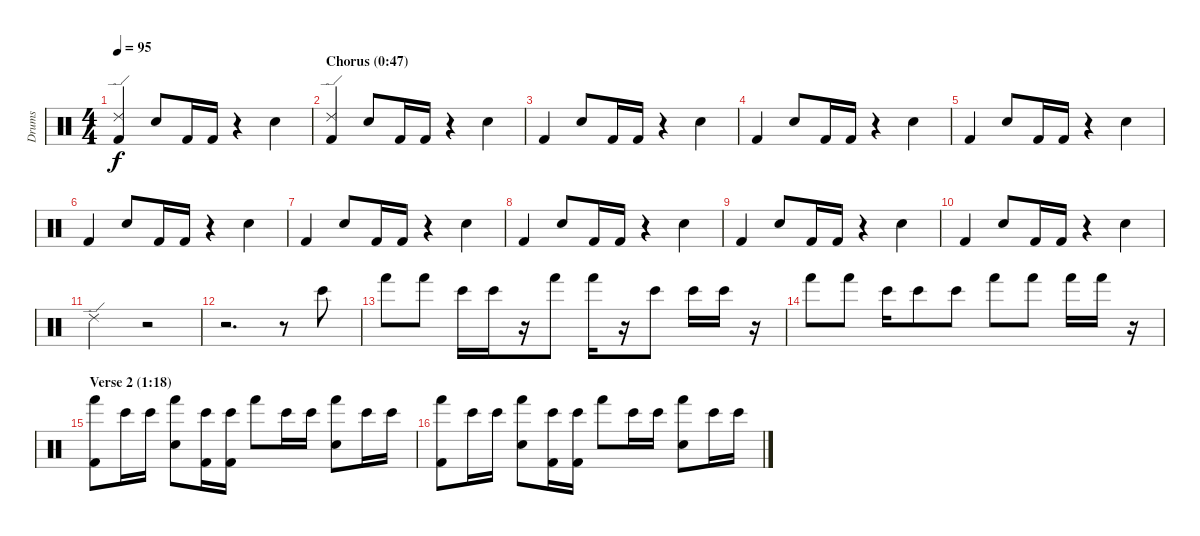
\track ("Drums" "Drums") {instrument percussion}
\staff {score}
\articulation defaults
\ts (4 4)
\tempo 95
\clef neutral
\ks c
("Ride (edge) 2" "Kick (hit) 2").4{dy f} "Snare (hit) 2".8 "Kick (hit) 2".16 "Kick (hit) 2".16 r.4 "Snare (hit) 2".4 |
\section ("" "Chorus (0:47)")
("Ride (edge) 2" "Kick (hit) 2").4 "Snare (hit) 2".8 "Kick (hit) 2".16 "Kick (hit) 2".16 r.4 "Snare (hit) 2".4 |
"Kick (hit) 2".4 "Snare (hit) 2".8 "Kick (hit) 2".16 "Kick (hit) 2".16 r.4 "Snare (hit) 2".4 |
"Kick (hit) 2".4 "Snare (hit) 2".8 "Kick (hit) 2".16 "Kick (hit) 2".16 r.4 "Snare (hit) 2".4 |
"Kick (hit) 2".4 "Snare (hit) 2".8 "Kick (hit) 2".16 "Kick (hit) 2".16 r.4 "Snare (hit) 2".4 |
"Kick (hit) 2".4 "Snare (hit) 2".8 "Kick (hit) 2".16 "Kick (hit) 2".16 r.4 "Snare (hit) 2".4 |
"Kick (hit) 2".4 "Snare (hit) 2".8 "Kick (hit) 2".16 "Kick (hit) 2".16 r.4 "Snare (hit) 2".4 |
"Kick (hit) 2".4 "Snare (hit) 2".8 "Kick (hit) 2".16 "Kick (hit) 2".16 r.4 "Snare (hit) 2".4 |
"Kick (hit) 2".4 "Snare (hit) 2".8 "Kick (hit) 2".16 "Kick (hit) 2".16 r.4 "Snare (hit) 2".4 |
"Kick (hit) 2".4 "Snare (hit) 2".8 "Kick (hit) 2".16 "Kick (hit) 2".16 r.4 "Snare (hit) 2".4 |
"Ride (edge) 2".2 r.2 |
r.2{d} r.8 "Bongo High (hit)".8 |
"Hand (hit)".8 "Hand (hit)".8 "Bongo High (hit)".16 "Bongo High (hit)".16 r.16 "Hand (hit)".8 "Hand (hit)".16 r.16 "Bongo High (hit)".8 "Bongo High (hit)".16 "Bongo High (hit)".16 r.16 |
"Hand (hit)".8 "Hand (hit)".8 "Bongo High (hit)".16 "Bongo High (hit)".8 "Bongo High (hit)".8 "Hand (hit)".8 "Hand (hit)".8 "Hand (hit)".16 "Hand (hit)".16 r.16 |
\section ("" "Verse 2 (1:18)")
("Hand (hit)" "Kick (hit) 2").8 "Bongo High (hit)".16 "Bongo High (hit)".16 ("Hand (hit)" "Snare (hit) 2").8 ("Bongo High (hit)" "Kick (hit) 2").16 ("Bongo High (hit)" "Kick (hit) 2").16 "Hand (hit)".8 "Bongo High (hit)".16 "Bongo High (hit)".16 ("Hand (hit)" "Snare (hit) 2").8 "Bongo High (hit)".16 "Bongo High (hit)".16 |
("Hand (hit)" "Kick (hit) 2").8 "Bongo High (hit)".16 "Bongo High (hit)".16 ("Hand (hit)" "Snare (hit) 2").8 ("Bongo High (hit)" "Kick (hit) 2").16 ("Bongo High (hit)" "Kick (hit) 2").16 "Hand (hit)".8 "Bongo High (hit)".16 "Bongo High (hit)".16 ("Hand (hit)" "Snare (hit) 2").8 "Bongo High (hit)".16 "Bongo High (hit)".16
